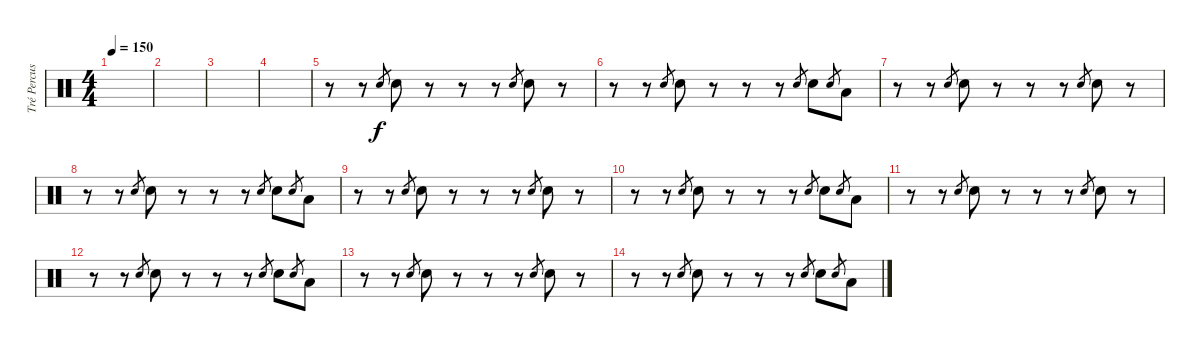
\track ("Tré Percussion" "Tré Percus") {instrument percussion}
\staff {score}
\articulation defaults
\ts (4 4)
\tempo 150
\clef neutral
\ks c
|
|
|
|
r.8 r.8 "Hand Clap (hit)".8{gr} "Hand Clap (hit)".8 r.8 r.8 r.8 "Hand Clap (hit)".8{gr} "Hand Clap (hit)".8 r.8 |
r.8 r.8 "Hand Clap (hit)".8{gr} "Hand Clap (hit)".8 r.8 r.8 r.8 "Hand Clap (hit)".8{gr} "Hand Clap (hit)".8 "Hand Clap (hit)".8{gr} "Low Tom (hit)".8 |
r.8 r.8 "Hand Clap (hit)".8{gr} "Hand Clap (hit)".8 r.8 r.8 r.8 "Hand Clap (hit)".8{gr} "Hand Clap (hit)".8 r.8 |
r.8 r.8 "Hand Clap (hit)".8{gr} "Hand Clap (hit)".8 r.8 r.8 r.8 "Hand Clap (hit)".8{gr} "Hand Clap (hit)".8 "Hand Clap (hit)".8{gr} "Low Tom (hit)".8 |
r.8 r.8 "Hand Clap (hit)".8{gr} "Hand Clap (hit)".8 r.8 r.8 r.8 "Hand Clap (hit)".8{gr} "Hand Clap (hit)".8 r.8 |
r.8 r.8 "Hand Clap (hit)".8{gr} "Hand Clap (hit)".8 r.8 r.8 r.8 "Hand Clap (hit)".8{gr} "Hand Clap (hit)".8 "Hand Clap (hit)".8{gr} "Low Tom (hit)".8 |
r.8 r.8 "Hand Clap (hit)".8{gr} "Hand Clap (hit)".8 r.8 r.8 r.8 "Hand Clap (hit)".8{gr} "Hand Clap (hit)".8 r.8 |
r.8 r.8 "Hand Clap (hit)".8{gr} "Hand Clap (hit)".8 r.8 r.8 r.8 "Hand Clap (hit)".8{gr} "Hand Clap (hit)".8 "Hand Clap (hit)".8{gr} "Low Tom (hit)".8 |
r.8 r.8 "Hand Clap (hit)".8{gr} "Hand Clap (hit)".8 r.8 r.8 r.8 "Hand Clap (hit)".8{gr} "Hand Clap (hit)".8 r.8 |
r.8 r.8 "Hand Clap (hit)".8{gr} "Hand Clap (hit)".8 r.8 r.8 r.8 "Hand Clap (hit)".8{gr} "Hand Clap (hit)".8 "Hand Clap (hit)".8{gr} "Low Tom (hit)".8
